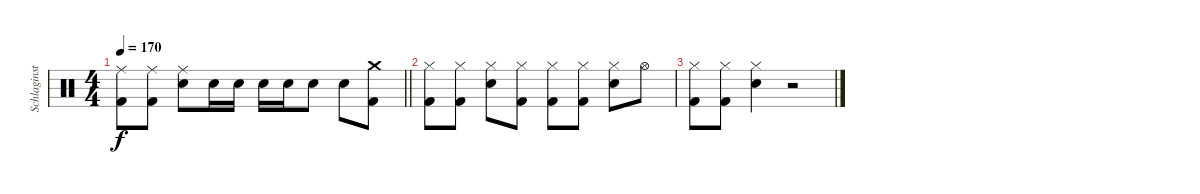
\track ("Schlaginstrumente - Auswahl" "Schlaginst") {instrument percussion}
\staff {score}
\articulation defaults
\ts (4 4)
\tempo 170
\clef neutral
\barLineRight lightlight
\ks c
("Ride (middle)" "Kick (hit) 2").8{dy f} ("Ride (middle)" "Kick (hit) 2").8 ("Ride (middle)" "Snare (hit) 2").8 "Snare (hit) 2".16 "Snare (hit) 2".16 "Snare (hit) 2".16 "Snare (hit) 2".16 "Snare (hit) 2".8 "Snare (hit) 2".8 ("Crash medium (hit)" "Kick (hit) 2").8 |
("Hi-Hat (closed)" "Kick (hit) 2").8 ("Hi-Hat (closed)" "Kick (hit) 2").8 ("Hi-Hat (closed)" "Snare (hit) 2").8 ("Hi-Hat (closed)" "Kick (hit) 2").8 ("Hi-Hat (closed)" "Kick (hit) 2").8 ("Hi-Hat (closed)" "Kick (hit) 2").8 ("Hi-Hat (closed)" "Snare (hit) 2").8 "Hi-Hat (open)".8 |
("Hi-Hat (closed)" "Kick (hit) 2").8 ("Hi-Hat (closed)" "Kick (hit) 2").8 ("Hi-Hat (closed)" "Snare (hit) 2").4 r.2
